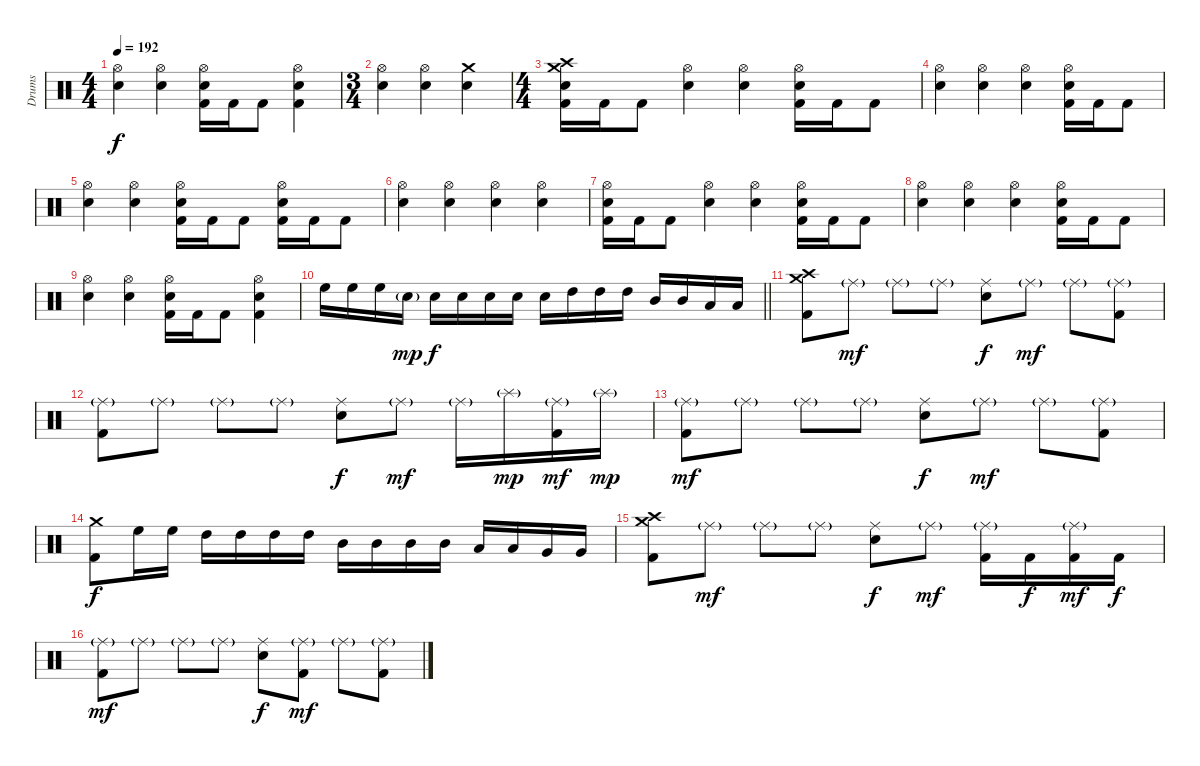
\track ("Drums" "Drums") {instrument percussion}
\staff {score}
\articulation defaults
\ts (4 4)
\tempo 192
\clef neutral
\ks c
("Hi-Hat (open)" "Electric Snare (hit)").4{dy f} ("Hi-Hat (open)" "Electric Snare (hit)").4 ("Hi-Hat (open)" "Electric Snare (hit)" "Kick (hit) 2").16 "Kick (hit) 2".16 "Kick (hit) 2".8 ("Hi-Hat (open)" "Electric Snare (hit)" "Kick (hit) 2").4 |
\ts (3 4)
("Hi-Hat (open)" "Electric Snare (hit)").4 ("Hi-Hat (open)" "Electric Snare (hit)").4 ("Crash medium (hit)" "Electric Snare (hit)").4 |
\ts (4 4)
("Crash high (hit)" "Crash medium (hit)" "Electric Snare (hit)" "Kick (hit) 2").16 "Kick (hit) 2".16 "Kick (hit) 2".8 ("Hi-Hat (open)" "Electric Snare (hit)").4 ("Hi-Hat (open)" "Electric Snare (hit)").4 ("Hi-Hat (open)" "Electric Snare (hit)" "Kick (hit) 2").16 "Kick (hit) 2".16 "Kick (hit) 2".8 |
("Hi-Hat (open)" "Electric Snare (hit)").4 ("Hi-Hat (open)" "Electric Snare (hit)").4 ("Hi-Hat (open)" "Electric Snare (hit)").4 ("Hi-Hat (open)" "Electric Snare (hit)" "Kick (hit) 2").16 "Kick (hit) 2".16 "Kick (hit) 2".8 |
("Hi-Hat (open)" "Electric Snare (hit)").4 ("Hi-Hat (open)" "Electric Snare (hit)").4 ("Hi-Hat (open)" "Electric Snare (hit)" "Kick (hit) 2").16 "Kick (hit) 2".16 "Kick (hit) 2".8 ("Hi-Hat (open)" "Electric Snare (hit)" "Kick (hit) 2").16 "Kick (hit) 2".16 "Kick (hit) 2".8 |
("Hi-Hat (open)" "Electric Snare (hit)").4 ("Hi-Hat (open)" "Electric Snare (hit)").4 ("Hi-Hat (open)" "Electric Snare (hit)").4 ("Hi-Hat (open)" "Electric Snare (hit)").4 |
("Hi-Hat (open)" "Electric Snare (hit)" "Kick (hit) 2").16 "Kick (hit) 2".16 "Kick (hit) 2".8 ("Hi-Hat (open)" "Electric Snare (hit)").4 ("Hi-Hat (open)" "Electric Snare (hit)").4 ("Hi-Hat (open)" "Electric Snare (hit)" "Kick (hit) 2").16 "Kick (hit) 2".16 "Kick (hit) 2".8 |
("Hi-Hat (open)" "Electric Snare (hit)").4 ("Hi-Hat (open)" "Electric Snare (hit)").4 ("Hi-Hat (open)" "Electric Snare (hit)").4 ("Hi-Hat (open)" "Electric Snare (hit)" "Kick (hit) 2").16 "Kick (hit) 2".16 "Kick (hit) 2".8 |
("Hi-Hat (open)" "Electric Snare (hit)").4 ("Hi-Hat (open)" "Electric Snare (hit)").4 ("Hi-Hat (open)" "Electric Snare (hit)" "Kick (hit) 2").16 "Kick (hit) 2".16 "Kick (hit) 2".8 ("Hi-Hat (open)" "Electric Snare (hit)" "Kick (hit) 2").4 |
\barLineRight lightlight "High Floor Tom (hit)".16 "High Floor Tom (hit)".16 "High Floor Tom (hit)".16 "Electric Snare (hit)"{g}.16{dy mp} "Electric Snare (hit)".16{dy f} "Electric Snare (hit)".16 "Electric Snare (hit)".16 "Electric Snare (hit)".16 "Electric Snare (hit)".16 "High Tom (hit)".16 "High Tom (hit)".16 "High Tom (hit)".16 "Mid Tom (hit)".16 "Mid Tom (hit)".16 "Low Tom (hit)".16 "Low Tom (hit)".16
|
("Crash high (hit)" "Crash medium (hit)" "Kick (hit) 2").8 "Ride (middle)"{g}.8{dy mf} "Ride (middle)"{g}.8 "Ride (middle)"{g}.8 ("Ride (middle)" "Electric Snare (hit)").8{dy f} "Ride (middle)"{g}.8{dy mf} "Ride (middle)"{g}.8 ("Ride (middle)"{g} "Kick (hit) 2").8 |
("Ride (middle)"{g} "Kick (hit) 2").8 "Ride (middle)"{g}.8 "Ride (middle)"{g}.8 "Ride (middle)"{g}.8 ("Ride (middle)" "Electric Snare (hit)").8{dy f} "Ride (middle)"{g}.8{dy mf} "Ride (middle)"{g}.16 "Splash (hit)"{g}.16{dy mp} ("Ride (middle)"{g} "Kick (hit) 2").16{dy mf} "Splash (hit)"{g}.16{dy mp} |
("Ride (middle)"{g} "Kick (hit) 2").8{dy mf} "Ride (middle)"{g}.8 "Ride (middle)"{g}.8 "Ride (middle)"{g}.8 ("Ride (middle)" "Electric Snare (hit)").8{dy f} "Ride (middle)"{g}.8{dy mf} "Ride (middle)"{g}.8 ("Ride (middle)"{g} "Kick (hit) 2").8 |
("Crash medium (hit)" "Kick (hit) 2").8{dy f} "High Floor Tom (hit)".16 "High Floor Tom (hit)".16 "High Tom (hit)".16 "High Tom (hit)".16 "High Tom (hit)".16 "High Tom (hit)".16 "Mid Tom (hit)".16 "Mid Tom (hit)".16 "Mid Tom (hit)".16 "Mid Tom (hit)".16 "Low Tom (hit)".16 "Low Tom (hit)".16 "Very Low Tom (hit)".16 "Very Low Tom (hit)".16 |
("Crash high (hit)" "Crash medium (hit)" "Kick (hit) 2").8 "Ride (middle)"{g}.8{dy mf} "Ride (middle)"{g}.8 "Ride (middle)"{g}.8 ("Ride (middle)" "Electric Snare (hit)").8{dy f} "Ride (middle)"{g}.8{dy mf} ("Ride (middle)"{g} "Kick (hit) 2").16 "Kick (hit) 2".16{dy f} ("Ride (middle)"{g} "Kick (hit) 2").16{dy mf} "Kick (hit) 2".16{dy f} |
("Ride (middle)"{g} "Kick (hit) 2").8{dy mf} "Ride (middle)"{g}.8 "Ride (middle)"{g}.8 "Ride (middle)"{g}.8 ("Ride (middle)" "Electric Snare (hit)").8{dy f} ("Ride (middle)"{g} "Kick (hit) 2").8{dy mf} "Ride (middle)"{g}.8 ("Ride (middle)"{g} "Kick (hit) 2").8
